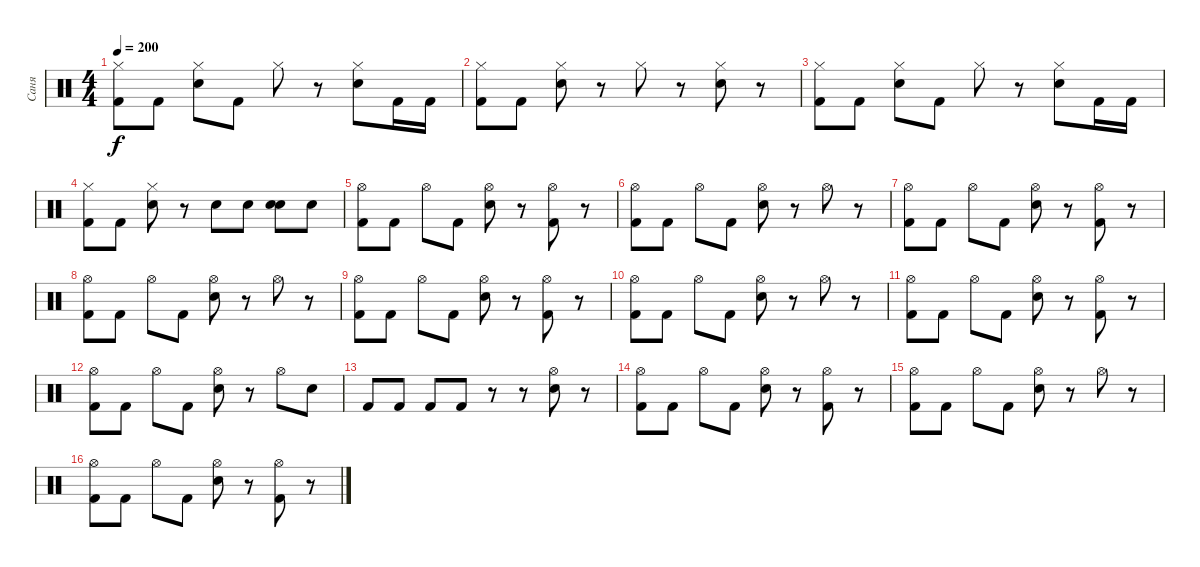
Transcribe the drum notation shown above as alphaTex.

\track ("Саня" "Саня") {instrument percussion}
\staff {score}
\articulation defaults
\ts (4 4)
\tempo 200
\clef neutral
\ks c
("Hi-Hat (closed)" "Kick (hit) 2").8{dy f} "Kick (hit) 2".8 ("Hi-Hat (closed)" "Electric Snare (hit)").8 "Kick (hit) 2".8 "Hi-Hat (closed)".8 r.8 ("Hi-Hat (closed)" "Electric Snare (hit)").8 "Kick (hit) 2".16 "Kick (hit) 2".16 |
("Hi-Hat (closed)" "Kick (hit) 2").8 "Kick (hit) 2".8 ("Hi-Hat (closed)" "Electric Snare (hit)").8 r.8 "Hi-Hat (closed)".8 r.8 ("Hi-Hat (closed)" "Electric Snare (hit)").8 r.8 |
("Hi-Hat (closed)" "Kick (hit) 2").8 "Kick (hit) 2".8 ("Hi-Hat (closed)" "Electric Snare (hit)").8 "Kick (hit) 2".8 "Hi-Hat (closed)".8 r.8 ("Hi-Hat (closed)" "Electric Snare (hit)").8 "Kick (hit) 2".16 "Kick (hit) 2".16 |
("Hi-Hat (closed)" "Kick (hit) 2").8 "Kick (hit) 2".8 ("Hi-Hat (closed)" "Electric Snare (hit)").8 r.8 "Electric Snare (hit)".8 "Electric Snare (hit)".8 ("Electric Snare (hit)" "Electric Snare (hit)").8 "Electric Snare (hit)".8 |
("Hi-Hat (open)" "Kick (hit) 2").8 "Kick (hit) 2".8 "Hi-Hat (open)".8 "Kick (hit) 2".8 ("Hi-Hat (open)" "Electric Snare (hit)").8 r.8 ("Hi-Hat (open)" "Kick (hit) 2").8 r.8 |
("Hi-Hat (open)" "Kick (hit) 2").8 "Kick (hit) 2".8 "Hi-Hat (open)".8 "Kick (hit) 2".8 ("Hi-Hat (open)" "Electric Snare (hit)").8 r.8 "Hi-Hat (open)".8 r.8 |
("Hi-Hat (open)" "Kick (hit) 2").8 "Kick (hit) 2".8 "Hi-Hat (open)".8 "Kick (hit) 2".8 ("Hi-Hat (open)" "Electric Snare (hit)").8 r.8 ("Hi-Hat (open)" "Kick (hit) 2").8 r.8 |
("Hi-Hat (open)" "Kick (hit) 2").8 "Kick (hit) 2".8 "Hi-Hat (open)".8 "Kick (hit) 2".8 ("Hi-Hat (open)" "Electric Snare (hit)").8 r.8 "Hi-Hat (open)".8 r.8 |
("Hi-Hat (open)" "Kick (hit) 2").8 "Kick (hit) 2".8 "Hi-Hat (open)".8 "Kick (hit) 2".8 ("Hi-Hat (open)" "Electric Snare (hit)").8 r.8 ("Hi-Hat (open)" "Kick (hit) 2").8 r.8 |
("Hi-Hat (open)" "Kick (hit) 2").8 "Kick (hit) 2".8 "Hi-Hat (open)".8 "Kick (hit) 2".8 ("Hi-Hat (open)" "Electric Snare (hit)").8 r.8 "Hi-Hat (open)".8 r.8 |
("Hi-Hat (open)" "Kick (hit) 2").8 "Kick (hit) 2".8 "Hi-Hat (open)".8 "Kick (hit) 2".8 ("Hi-Hat (open)" "Electric Snare (hit)").8 r.8 ("Hi-Hat (open)" "Kick (hit) 2").8 r.8 |
("Hi-Hat (open)" "Kick (hit) 2").8 "Kick (hit) 2".8 "Hi-Hat (open)".8 "Kick (hit) 2".8 ("Hi-Hat (open)" "Electric Snare (hit)").8 r.8 "Hi-Hat (open)".8 "Electric Snare (hit)".8 |
"Kick (hit) 2".8 "Kick (hit) 2".8 "Kick (hit) 2".8 "Kick (hit) 2".8 r.8 r.8 ("Hi-Hat (open)" "Electric Snare (hit)").8 r.8 |
("Hi-Hat (open)" "Kick (hit) 2").8 "Kick (hit) 2".8 "Hi-Hat (open)".8 "Kick (hit) 2".8 ("Hi-Hat (open)" "Electric Snare (hit)").8 r.8 ("Hi-Hat (open)" "Kick (hit) 2").8 r.8 |
("Hi-Hat (open)" "Kick (hit) 2").8 "Kick (hit) 2".8 "Hi-Hat (open)".8 "Kick (hit) 2".8 ("Hi-Hat (open)" "Electric Snare (hit)").8 r.8 "Hi-Hat (open)".8 r.8 |
("Hi-Hat (open)" "Kick (hit) 2").8 "Kick (hit) 2".8 "Hi-Hat (open)".8 "Kick (hit) 2".8 ("Hi-Hat (open)" "Electric Snare (hit)").8 r.8 ("Hi-Hat (open)" "Kick (hit) 2").8 r.8
